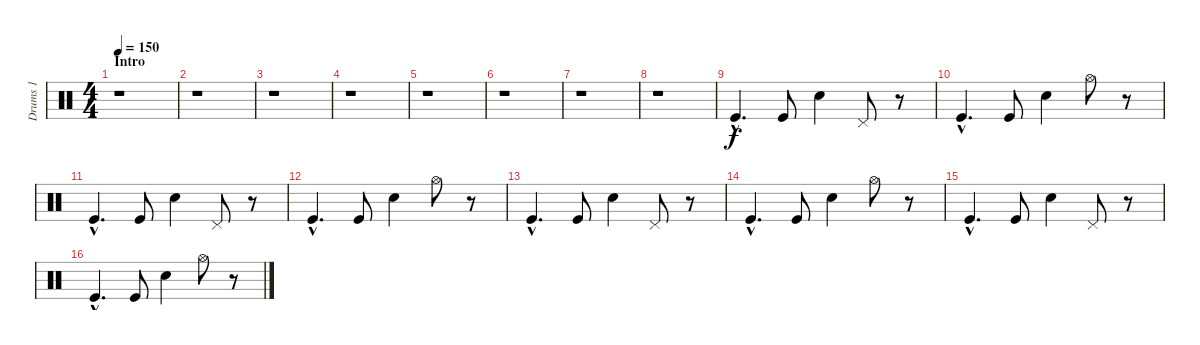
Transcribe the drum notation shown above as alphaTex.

\track ("Drums 1" "Drums 1") {instrument percussion}
\staff {score}
\articulation defaults
\ts (4 4)
\section ("" "Intro")
\tempo 150
\tempo 100
\tempo 150
\clef neutral
\ks c
r.1{dy f} |
r.1 |
r.1 |
r.1 |
r.1 |
r.1 |
r.1 |
r.1 |
"Kick (hit)"{hac}.4{d} "Kick (hit)".8 "Snare (hit) 2".4 "Pedal Hi-Hat (hit)".8 r.8 |
"Kick (hit)"{hac}.4{d} "Kick (hit)".8 "Snare (hit) 2".4 "Hi-Hat (open)".8 r.8 |
"Kick (hit)"{hac}.4{d} "Kick (hit)".8 "Snare (hit) 2".4 "Pedal Hi-Hat (hit)".8 r.8 |
"Kick (hit)"{hac}.4{d} "Kick (hit)".8 "Snare (hit) 2".4 "Hi-Hat (open)".8 r.8 |
"Kick (hit)"{hac}.4{d} "Kick (hit)".8 "Snare (hit) 2".4 "Pedal Hi-Hat (hit)".8 r.8 |
"Kick (hit)"{hac}.4{d} "Kick (hit)".8 "Snare (hit) 2".4 "Hi-Hat (open)".8 r.8 |
"Kick (hit)"{hac}.4{d} "Kick (hit)".8 "Snare (hit) 2".4 "Pedal Hi-Hat (hit)".8 r.8 |
"Kick (hit)"{hac}.4{d} "Kick (hit)".8 "Snare (hit) 2".4 "Hi-Hat (open)".8 r.8
